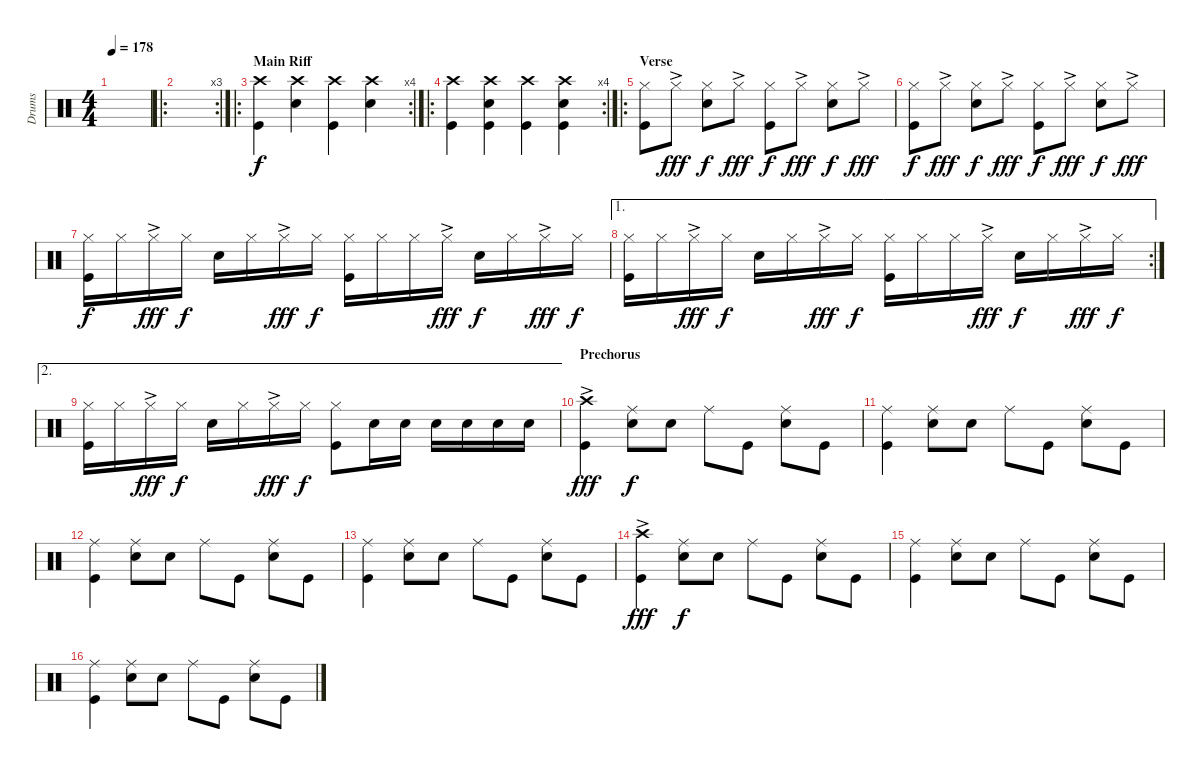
\track ("Drums" "Drums") {instrument percussion}
\staff {score}
\articulation defaults
\ts (4 4)
\tempo 178
\clef neutral
\ks c
|
\ro
\rc 3
|
\ro
\rc 4
\section ("" "Main Riff")
("Crash high (hit)" "Kick (hit)").4 ("Crash high (hit)" "Snare (hit) 2").4 ("Crash high (hit)" "Kick (hit)").4 ("Crash high (hit)" "Snare (hit) 2").4 |
\ro
\rc 4
("Crash high (hit)" "Kick (hit)").4 ("Crash high (hit)" "Snare (hit) 2" "Kick (hit)").4 ("Crash high (hit)" "Kick (hit)").4 ("Crash high (hit)" "Snare (hit) 2" "Kick (hit)").4 |
\ro
\section ("" "Verse")
("Hi-Hat (closed)" "Kick (hit)").8 "Hi-Hat (closed)"{ac}.8{dy fff} ("Hi-Hat (closed)" "Snare (hit) 2").8{dy f} "Hi-Hat (closed)"{ac}.8{dy fff} ("Hi-Hat (closed)" "Kick (hit)").8{dy f} "Hi-Hat (closed)"{ac}.8{dy fff} ("Hi-Hat (closed)" "Snare (hit) 2").8{dy f} "Hi-Hat (closed)"{ac}.8{dy fff} |
("Hi-Hat (closed)" "Kick (hit)").8{dy f} "Hi-Hat (closed)"{ac}.8{dy fff} ("Hi-Hat (closed)" "Snare (hit) 2").8{dy f} "Hi-Hat (closed)"{ac}.8{dy fff} ("Hi-Hat (closed)" "Kick (hit)").8{dy f} "Hi-Hat (closed)"{ac}.8{dy fff} ("Hi-Hat (closed)" "Snare (hit) 2").8{dy f} "Hi-Hat (closed)"{ac}.8{dy fff} |
("Hi-Hat (closed)" "Kick (hit)").16{dy f} "Hi-Hat (closed)".16 "Hi-Hat (closed)"{ac}.16{dy fff} "Hi-Hat (closed)".16{dy f} "Snare (hit) 2".16 "Hi-Hat (closed)".16 "Hi-Hat (closed)"{ac}.16{dy fff} "Hi-Hat (closed)".16{dy f} ("Hi-Hat (closed)" "Kick (hit)").16 "Hi-Hat (closed)".16 "Hi-Hat (closed)".16 "Hi-Hat (closed)"{ac}.16{dy fff} "Snare (hit) 2".16{dy f} "Hi-Hat (closed)".16 "Hi-Hat (closed)"{ac}.16{dy fff} "Hi-Hat (closed)".16{dy f} |
\ae 1
\rc 2
("Hi-Hat (closed)" "Kick (hit)").16 "Hi-Hat (closed)".16 "Hi-Hat (closed)"{ac}.16{dy fff} "Hi-Hat (closed)".16{dy f} "Snare (hit) 2".16 "Hi-Hat (closed)".16 "Hi-Hat (closed)"{ac}.16{dy fff} "Hi-Hat (closed)".16{dy f} ("Hi-Hat (closed)" "Kick (hit)").16 "Hi-Hat (closed)".16 "Hi-Hat (closed)".16 "Hi-Hat (closed)"{ac}.16{dy fff} "Snare (hit) 2".16{dy f} "Hi-Hat (closed)".16 "Hi-Hat (closed)"{ac}.16{dy fff} "Hi-Hat (closed)".16{dy f} |
\ae 2
("Hi-Hat (closed)" "Kick (hit)").16 "Hi-Hat (closed)".16 "Hi-Hat (closed)"{ac}.16{dy fff} "Hi-Hat (closed)".16{dy f} "Snare (hit) 2".16 "Hi-Hat (closed)".16 "Hi-Hat (closed)"{ac}.16{dy fff} "Hi-Hat (closed)".16{dy f} ("Hi-Hat (closed)" "Kick (hit)").8 "Snare (hit) 2".16 "Snare (hit) 2".16 "Snare (hit) 2".16 "Snare (hit) 2".16 "Snare (hit) 2".16 "Snare (hit) 2".16 |
\section ("" "Prechorus")
("Crash high (hit)"{ac} "Kick (hit)"{ac}).4{dy fff} ("Ride (middle)" "Snare (hit) 2").8{dy f} "Snare (hit) 2".8 "Ride (middle)".8 "Kick (hit)".8 ("Ride (middle)" "Snare (hit) 2").8 "Kick (hit)".8 |
("Ride (middle)" "Kick (hit)").4 ("Ride (middle)" "Snare (hit) 2").8 "Snare (hit) 2".8 "Ride (middle)".8 "Kick (hit)".8 ("Ride (middle)" "Snare (hit) 2").8 "Kick (hit)".8 |
("Ride (middle)" "Kick (hit)").4 ("Ride (middle)" "Snare (hit) 2").8 "Snare (hit) 2".8 "Ride (middle)".8 "Kick (hit)".8 ("Ride (middle)" "Snare (hit) 2").8 "Kick (hit)".8 |
("Ride (middle)" "Kick (hit)").4 ("Ride (middle)" "Snare (hit) 2").8 "Snare (hit) 2".8 "Ride (middle)".8 "Kick (hit)".8 ("Ride (middle)" "Snare (hit) 2").8 "Kick (hit)".8 |
("Crash high (hit)"{ac} "Kick (hit)"{ac}).4{dy fff} ("Ride (middle)" "Snare (hit) 2").8{dy f} "Snare (hit) 2".8 "Ride (middle)".8 "Kick (hit)".8 ("Ride (middle)" "Snare (hit) 2").8 "Kick (hit)".8 |
("Ride (middle)" "Kick (hit)").4 ("Ride (middle)" "Snare (hit) 2").8 "Snare (hit) 2".8 "Ride (middle)".8 "Kick (hit)".8 ("Ride (middle)" "Snare (hit) 2").8 "Kick (hit)".8 |
("Ride (middle)" "Kick (hit)").4 ("Ride (middle)" "Snare (hit) 2").8 "Snare (hit) 2".8 "Ride (middle)".8 "Kick (hit)".8 ("Ride (middle)" "Snare (hit) 2").8 "Kick (hit)".8
